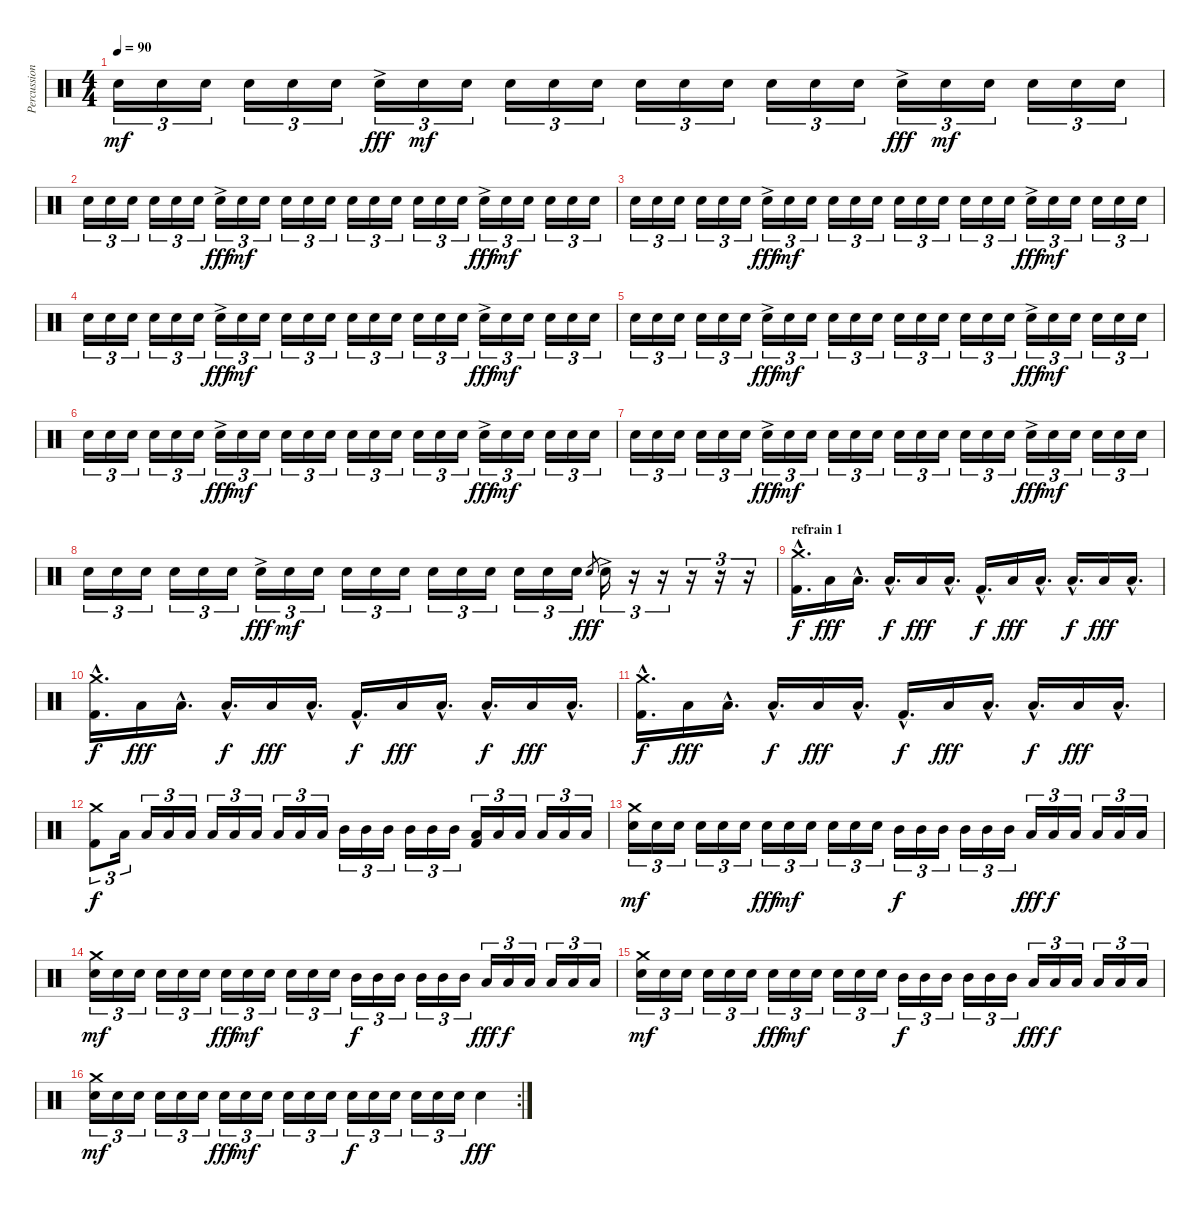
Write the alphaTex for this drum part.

\track ("Percussions" "Percussion") {instrument percussion}
\staff {score}
\articulation defaults
\ts (4 4)
\tempo 90
\clef neutral
\ks c "Electric Snare (hit)".16{tu (3 2) dy mf} "Electric Snare (hit)".16{tu (3 2)} "Electric Snare (hit)".16{tu (3 2)} "Electric Snare (hit)".16{tu (3 2)} "Electric Snare (hit)".16{tu (3 2)} "Electric Snare (hit)".16{tu (3 2)} "Electric Snare (hit)"{ac}.16{tu (3 2) dy fff} "Electric Snare (hit)".16{tu (3 2) dy mf} "Electric Snare (hit)".16{tu (3 2)} "Electric Snare (hit)".16{tu (3 2)} "Electric Snare (hit)".16{tu (3 2)} "Electric Snare (hit)".16{tu (3 2)} "Electric Snare (hit)".16{tu (3 2)} "Electric Snare (hit)".16{tu (3 2)} "Electric Snare (hit)".16{tu (3 2)} "Electric Snare (hit)".16{tu (3 2)} "Electric Snare (hit)".16{tu (3 2)} "Electric Snare (hit)".16{tu (3 2)} "Electric Snare (hit)"{ac}.16{tu (3 2) dy fff} "Electric Snare (hit)".16{tu (3 2) dy mf} "Electric Snare (hit)".16{tu (3 2)} "Electric Snare (hit)".16{tu (3 2)} "Electric Snare (hit)".16{tu (3 2)} "Electric Snare (hit)".16{tu (3 2)}
|
"Electric Snare (hit)".16{tu (3 2)} "Electric Snare (hit)".16{tu (3 2)} "Electric Snare (hit)".16{tu (3 2)} "Electric Snare (hit)".16{tu (3 2)} "Electric Snare (hit)".16{tu (3 2)} "Electric Snare (hit)".16{tu (3 2)} "Electric Snare (hit)"{ac}.16{tu (3 2) dy fff} "Electric Snare (hit)".16{tu (3 2) dy mf} "Electric Snare (hit)".16{tu (3 2)} "Electric Snare (hit)".16{tu (3 2)} "Electric Snare (hit)".16{tu (3 2)} "Electric Snare (hit)".16{tu (3 2)} "Electric Snare (hit)".16{tu (3 2)} "Electric Snare (hit)".16{tu (3 2)} "Electric Snare (hit)".16{tu (3 2)} "Electric Snare (hit)".16{tu (3 2)} "Electric Snare (hit)".16{tu (3 2)} "Electric Snare (hit)".16{tu (3 2)} "Electric Snare (hit)"{ac}.16{tu (3 2) dy fff} "Electric Snare (hit)".16{tu (3 2) dy mf} "Electric Snare (hit)".16{tu (3 2)} "Electric Snare (hit)".16{tu (3 2)} "Electric Snare (hit)".16{tu (3 2)} "Electric Snare (hit)".16{tu (3 2)} |
"Electric Snare (hit)".16{tu (3 2)} "Electric Snare (hit)".16{tu (3 2)} "Electric Snare (hit)".16{tu (3 2)} "Electric Snare (hit)".16{tu (3 2)} "Electric Snare (hit)".16{tu (3 2)} "Electric Snare (hit)".16{tu (3 2)} "Electric Snare (hit)"{ac}.16{tu (3 2) dy fff} "Electric Snare (hit)".16{tu (3 2) dy mf} "Electric Snare (hit)".16{tu (3 2)} "Electric Snare (hit)".16{tu (3 2)} "Electric Snare (hit)".16{tu (3 2)} "Electric Snare (hit)".16{tu (3 2)} "Electric Snare (hit)".16{tu (3 2)} "Electric Snare (hit)".16{tu (3 2)} "Electric Snare (hit)".16{tu (3 2)} "Electric Snare (hit)".16{tu (3 2)} "Electric Snare (hit)".16{tu (3 2)} "Electric Snare (hit)".16{tu (3 2)} "Electric Snare (hit)"{ac}.16{tu (3 2) dy fff} "Electric Snare (hit)".16{tu (3 2) dy mf} "Electric Snare (hit)".16{tu (3 2)} "Electric Snare (hit)".16{tu (3 2)} "Electric Snare (hit)".16{tu (3 2)} "Electric Snare (hit)".16{tu (3 2)} |
"Electric Snare (hit)".16{tu (3 2)} "Electric Snare (hit)".16{tu (3 2)} "Electric Snare (hit)".16{tu (3 2)} "Electric Snare (hit)".16{tu (3 2)} "Electric Snare (hit)".16{tu (3 2)} "Electric Snare (hit)".16{tu (3 2)} "Electric Snare (hit)"{ac}.16{tu (3 2) dy fff} "Electric Snare (hit)".16{tu (3 2) dy mf} "Electric Snare (hit)".16{tu (3 2)} "Electric Snare (hit)".16{tu (3 2)} "Electric Snare (hit)".16{tu (3 2)} "Electric Snare (hit)".16{tu (3 2)} "Electric Snare (hit)".16{tu (3 2)} "Electric Snare (hit)".16{tu (3 2)} "Electric Snare (hit)".16{tu (3 2)} "Electric Snare (hit)".16{tu (3 2)} "Electric Snare (hit)".16{tu (3 2)} "Electric Snare (hit)".16{tu (3 2)} "Electric Snare (hit)"{ac}.16{tu (3 2) dy fff} "Electric Snare (hit)".16{tu (3 2) dy mf} "Electric Snare (hit)".16{tu (3 2)} "Electric Snare (hit)".16{tu (3 2)} "Electric Snare (hit)".16{tu (3 2)} "Electric Snare (hit)".16{tu (3 2)} |
"Electric Snare (hit)".16{tu (3 2)} "Electric Snare (hit)".16{tu (3 2)} "Electric Snare (hit)".16{tu (3 2)} "Electric Snare (hit)".16{tu (3 2)} "Electric Snare (hit)".16{tu (3 2)} "Electric Snare (hit)".16{tu (3 2)} "Electric Snare (hit)"{ac}.16{tu (3 2) dy fff} "Electric Snare (hit)".16{tu (3 2) dy mf} "Electric Snare (hit)".16{tu (3 2)} "Electric Snare (hit)".16{tu (3 2)} "Electric Snare (hit)".16{tu (3 2)} "Electric Snare (hit)".16{tu (3 2)} "Electric Snare (hit)".16{tu (3 2)} "Electric Snare (hit)".16{tu (3 2)} "Electric Snare (hit)".16{tu (3 2)} "Electric Snare (hit)".16{tu (3 2)} "Electric Snare (hit)".16{tu (3 2)} "Electric Snare (hit)".16{tu (3 2)} "Electric Snare (hit)"{ac}.16{tu (3 2) dy fff} "Electric Snare (hit)".16{tu (3 2) dy mf} "Electric Snare (hit)".16{tu (3 2)} "Electric Snare (hit)".16{tu (3 2)} "Electric Snare (hit)".16{tu (3 2)} "Electric Snare (hit)".16{tu (3 2)} |
"Electric Snare (hit)".16{tu (3 2)} "Electric Snare (hit)".16{tu (3 2)} "Electric Snare (hit)".16{tu (3 2)} "Electric Snare (hit)".16{tu (3 2)} "Electric Snare (hit)".16{tu (3 2)} "Electric Snare (hit)".16{tu (3 2)} "Electric Snare (hit)"{ac}.16{tu (3 2) dy fff} "Electric Snare (hit)".16{tu (3 2) dy mf} "Electric Snare (hit)".16{tu (3 2)} "Electric Snare (hit)".16{tu (3 2)} "Electric Snare (hit)".16{tu (3 2)} "Electric Snare (hit)".16{tu (3 2)} "Electric Snare (hit)".16{tu (3 2)} "Electric Snare (hit)".16{tu (3 2)} "Electric Snare (hit)".16{tu (3 2)} "Electric Snare (hit)".16{tu (3 2)} "Electric Snare (hit)".16{tu (3 2)} "Electric Snare (hit)".16{tu (3 2)} "Electric Snare (hit)"{ac}.16{tu (3 2) dy fff} "Electric Snare (hit)".16{tu (3 2) dy mf} "Electric Snare (hit)".16{tu (3 2)} "Electric Snare (hit)".16{tu (3 2)} "Electric Snare (hit)".16{tu (3 2)} "Electric Snare (hit)".16{tu (3 2)} |
"Electric Snare (hit)".16{tu (3 2)} "Electric Snare (hit)".16{tu (3 2)} "Electric Snare (hit)".16{tu (3 2)} "Electric Snare (hit)".16{tu (3 2)} "Electric Snare (hit)".16{tu (3 2)} "Electric Snare (hit)".16{tu (3 2)} "Electric Snare (hit)"{ac}.16{tu (3 2) dy fff} "Electric Snare (hit)".16{tu (3 2) dy mf} "Electric Snare (hit)".16{tu (3 2)} "Electric Snare (hit)".16{tu (3 2)} "Electric Snare (hit)".16{tu (3 2)} "Electric Snare (hit)".16{tu (3 2)} "Electric Snare (hit)".16{tu (3 2)} "Electric Snare (hit)".16{tu (3 2)} "Electric Snare (hit)".16{tu (3 2)} "Electric Snare (hit)".16{tu (3 2)} "Electric Snare (hit)".16{tu (3 2)} "Electric Snare (hit)".16{tu (3 2)} "Electric Snare (hit)"{ac}.16{tu (3 2) dy fff} "Electric Snare (hit)".16{tu (3 2) dy mf} "Electric Snare (hit)".16{tu (3 2)} "Electric Snare (hit)".16{tu (3 2)} "Electric Snare (hit)".16{tu (3 2)} "Electric Snare (hit)".16{tu (3 2)} |
"Electric Snare (hit)".16{tu (3 2)} "Electric Snare (hit)".16{tu (3 2)} "Electric Snare (hit)".16{tu (3 2)} "Electric Snare (hit)".16{tu (3 2)} "Electric Snare (hit)".16{tu (3 2)} "Electric Snare (hit)".16{tu (3 2)} "Electric Snare (hit)"{ac}.16{tu (3 2) dy fff} "Electric Snare (hit)".16{tu (3 2) dy mf} "Electric Snare (hit)".16{tu (3 2)} "Electric Snare (hit)".16{tu (3 2)} "Electric Snare (hit)".16{tu (3 2)} "Electric Snare (hit)".16{tu (3 2)} "Electric Snare (hit)".16{tu (3 2)} "Electric Snare (hit)".16{tu (3 2)} "Electric Snare (hit)".16{tu (3 2)} "Electric Snare (hit)".16{tu (3 2)} "Electric Snare (hit)".16{tu (3 2)} "Electric Snare (hit)".16{tu (3 2)} "Electric Snare (hit)".8{gr dy fff} "Electric Snare (hit)"{ac}.16{tu (3 2)} r.16{tu (3 2)} r.16{tu (3 2)} r.16{tu (3 2)} r.16{tu (3 2)} r.16{tu (3 2)} |
\section ("" "refrain 1")
("Crash medium (hit)"{hac} "Kick (hit) 2"{hac}).16{d dy f} "Low Floor Tom (hit)".16{dy fff} "Low Floor Tom (hit)"{hac}.16{d} "Low Tom (hit)"{hac}.16{d dy f} "Low Floor Tom (hit)".16{dy fff} "Low Floor Tom (hit)"{hac}.16{d} "Kick (hit) 2"{hac}.16{d dy f} "Low Floor Tom (hit)".16{dy fff} "Low Floor Tom (hit)"{hac}.16{d} "Low Tom (hit)"{hac}.16{d dy f} "Low Floor Tom (hit)".16{dy fff} "Low Floor Tom (hit)"{hac}.16{d} |
("Crash medium (hit)"{hac} "Kick (hit) 2"{hac}).16{d dy f} "Low Floor Tom (hit)".16{dy fff} "Low Floor Tom (hit)"{hac}.16{d} "Low Tom (hit)"{hac}.16{d dy f} "Low Floor Tom (hit)".16{dy fff} "Low Floor Tom (hit)"{hac}.16{d} "Kick (hit) 2"{hac}.16{d dy f} "Low Floor Tom (hit)".16{dy fff} "Low Floor Tom (hit)"{hac}.16{d} "Low Tom (hit)"{hac}.16{d dy f} "Low Floor Tom (hit)".16{dy fff} "Low Floor Tom (hit)"{hac}.16{d} |
("Crash medium (hit)"{hac} "Kick (hit) 2"{hac}).16{d dy f} "Low Floor Tom (hit)".16{dy fff} "Low Floor Tom (hit)"{hac}.16{d} "Low Tom (hit)"{hac}.16{d dy f} "Low Floor Tom (hit)".16{dy fff} "Low Floor Tom (hit)"{hac}.16{d} "Kick (hit) 2"{hac}.16{d dy f} "Low Floor Tom (hit)".16{dy fff} "Low Floor Tom (hit)"{hac}.16{d} "Low Tom (hit)"{hac}.16{d dy f} "Low Floor Tom (hit)".16{dy fff} "Low Floor Tom (hit)"{hac}.16{d} |
("Crash medium (hit)" "Kick (hit) 2").8{tu (3 2) dy f} "Low Floor Tom (hit)".16{tu (3 2)} "Low Floor Tom (hit)".16{tu (3 2)} "Low Floor Tom (hit)".16{tu (3 2)} "Low Floor Tom (hit)".16{tu (3 2)} "Low Tom (hit)".16{tu (3 2)} "Low Tom (hit)".16{tu (3 2)} "Low Tom (hit)".16{tu (3 2)} "Low Tom (hit)".16{tu (3 2)} "Low Tom (hit)".16{tu (3 2)} "Low Tom (hit)".16{tu (3 2)} "Mid Tom (hit)".16{tu (3 2)} "Mid Tom (hit)".16{tu (3 2)} "Mid Tom (hit)".16{tu (3 2)} "Mid Tom (hit)".16{tu (3 2)} "Mid Tom (hit)".16{tu (3 2)} "Mid Tom (hit)".16{tu (3 2)} ("Low Floor Tom (hit)" "Kick (hit) 2").16{tu (3 2)} "Low Floor Tom (hit)".16{tu (3 2)} "Low Floor Tom (hit)".16{tu (3 2)} "Low Floor Tom (hit)".16{tu (3 2)} "Low Floor Tom (hit)".16{tu (3 2)} "Low Floor Tom (hit)".16{tu (3 2)} |
("Crash medium (hit)" "Electric Snare (hit)").16{tu (3 2) dy mf} "Electric Snare (hit)".16{tu (3 2)} "Electric Snare (hit)".16{tu (3 2)} "Electric Snare (hit)".16{tu (3 2)} "Electric Snare (hit)".16{tu (3 2)} "Electric Snare (hit)".16{tu (3 2)} "Electric Snare (hit)".16{tu (3 2) dy fff} "Electric Snare (hit)".16{tu (3 2) dy mf} "Electric Snare (hit)".16{tu (3 2)} "Electric Snare (hit)".16{tu (3 2)} "Electric Snare (hit)".16{tu (3 2)} "Electric Snare (hit)".16{tu (3 2)} "Mid Tom (hit)".16{tu (3 2) dy f} "Mid Tom (hit)".16{tu (3 2)} "Mid Tom (hit)".16{tu (3 2)} "Mid Tom (hit)".16{tu (3 2)} "Mid Tom (hit)".16{tu (3 2)} "Mid Tom (hit)".16{tu (3 2)} "Low Tom (hit)".16{tu (3 2) dy fff} "Low Tom (hit)".16{tu (3 2) dy f} "Low Tom (hit)".16{tu (3 2)} "Low Tom (hit)".16{tu (3 2)} "Low Tom (hit)".16{tu (3 2)} "Low Tom (hit)".16{tu (3 2)} |
("Crash medium (hit)" "Electric Snare (hit)").16{tu (3 2) dy mf} "Electric Snare (hit)".16{tu (3 2)} "Electric Snare (hit)".16{tu (3 2)} "Electric Snare (hit)".16{tu (3 2)} "Electric Snare (hit)".16{tu (3 2)} "Electric Snare (hit)".16{tu (3 2)} "Electric Snare (hit)".16{tu (3 2) dy fff} "Electric Snare (hit)".16{tu (3 2) dy mf} "Electric Snare (hit)".16{tu (3 2)} "Electric Snare (hit)".16{tu (3 2)} "Electric Snare (hit)".16{tu (3 2)} "Electric Snare (hit)".16{tu (3 2)} "Mid Tom (hit)".16{tu (3 2) dy f} "Mid Tom (hit)".16{tu (3 2)} "Mid Tom (hit)".16{tu (3 2)} "Mid Tom (hit)".16{tu (3 2)} "Mid Tom (hit)".16{tu (3 2)} "Mid Tom (hit)".16{tu (3 2)} "Low Tom (hit)".16{tu (3 2) dy fff} "Low Tom (hit)".16{tu (3 2) dy f} "Low Tom (hit)".16{tu (3 2)} "Low Tom (hit)".16{tu (3 2)} "Low Tom (hit)".16{tu (3 2)} "Low Tom (hit)".16{tu (3 2)} |
("Crash medium (hit)" "Electric Snare (hit)").16{tu (3 2) dy mf} "Electric Snare (hit)".16{tu (3 2)} "Electric Snare (hit)".16{tu (3 2)} "Electric Snare (hit)".16{tu (3 2)} "Electric Snare (hit)".16{tu (3 2)} "Electric Snare (hit)".16{tu (3 2)} "Electric Snare (hit)".16{tu (3 2) dy fff} "Electric Snare (hit)".16{tu (3 2) dy mf} "Electric Snare (hit)".16{tu (3 2)} "Electric Snare (hit)".16{tu (3 2)} "Electric Snare (hit)".16{tu (3 2)} "Electric Snare (hit)".16{tu (3 2)} "Mid Tom (hit)".16{tu (3 2) dy f} "Mid Tom (hit)".16{tu (3 2)} "Mid Tom (hit)".16{tu (3 2)} "Mid Tom (hit)".16{tu (3 2)} "Mid Tom (hit)".16{tu (3 2)} "Mid Tom (hit)".16{tu (3 2)} "Low Tom (hit)".16{tu (3 2) dy fff} "Low Tom (hit)".16{tu (3 2) dy f} "Low Tom (hit)".16{tu (3 2)} "Low Tom (hit)".16{tu (3 2)} "Low Tom (hit)".16{tu (3 2)} "Low Tom (hit)".16{tu (3 2)} |
\rc 2
("Crash medium (hit)" "Electric Snare (hit)").16{tu (3 2) dy mf} "Electric Snare (hit)".16{tu (3 2)} "Electric Snare (hit)".16{tu (3 2)} "Electric Snare (hit)".16{tu (3 2)} "Electric Snare (hit)".16{tu (3 2)} "Electric Snare (hit)".16{tu (3 2)} "Electric Snare (hit)".16{tu (3 2) dy fff} "Electric Snare (hit)".16{tu (3 2) dy mf} "Electric Snare (hit)".16{tu (3 2)} "Electric Snare (hit)".16{tu (3 2)} "Electric Snare (hit)".16{tu (3 2)} "Electric Snare (hit)".16{tu (3 2)} "Electric Snare (hit)".16{tu (3 2) dy f} "Electric Snare (hit)".16{tu (3 2)} "Electric Snare (hit)".16{tu (3 2)} "Electric Snare (hit)".16{tu (3 2)} "Electric Snare (hit)".16{tu (3 2)} "Electric Snare (hit)".16{tu (3 2)} "Electric Snare (hit)".4{dy fff}
